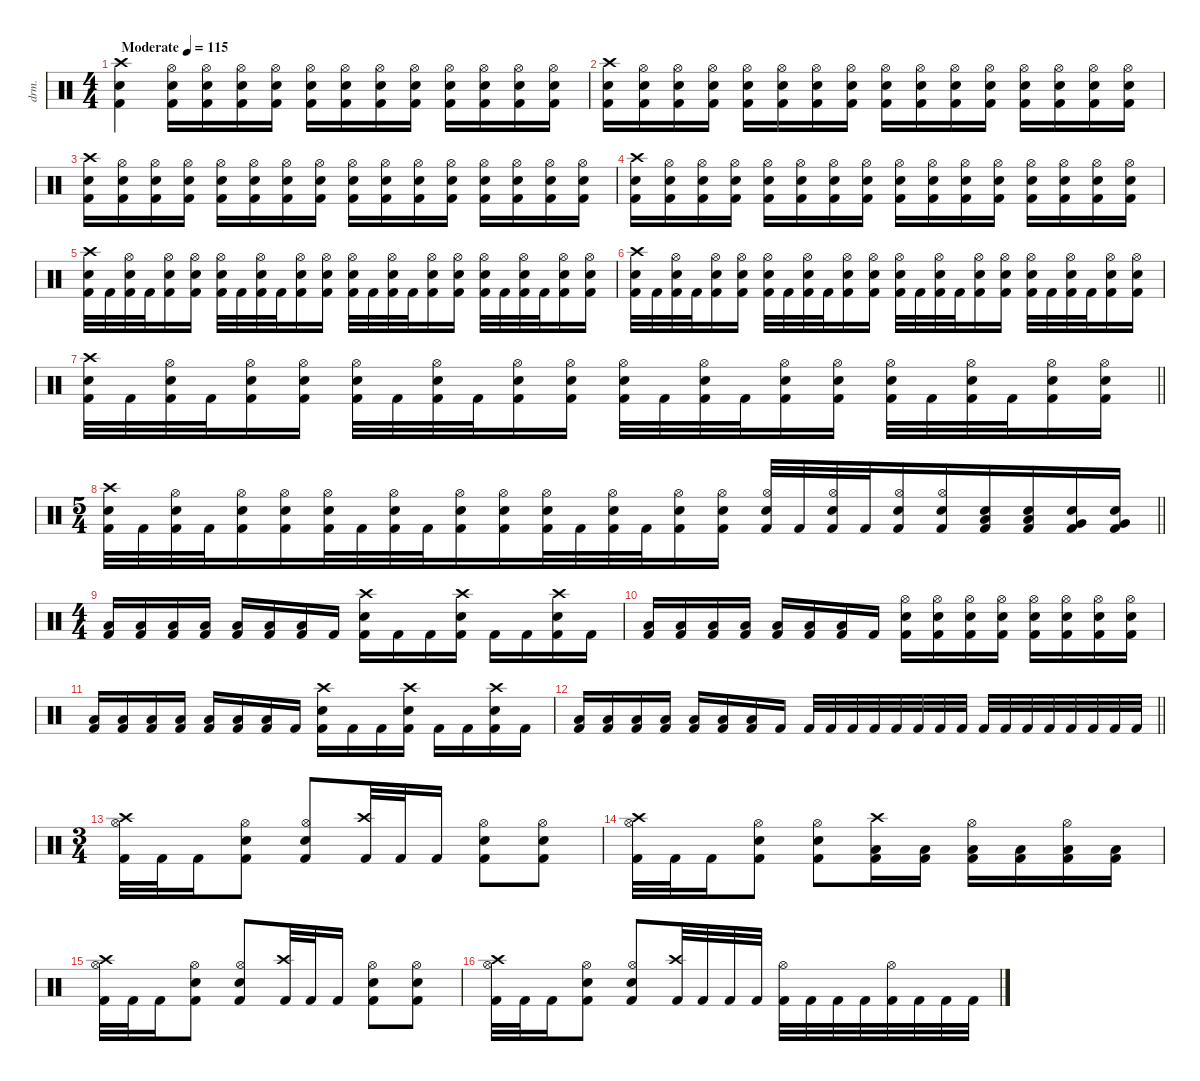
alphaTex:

\defaultSystemsLayout 4
\hideDynamics
\bracketExtendMode nobrackets
\otherSystemsTrackNameOrientation horizontal
\track ("Gene Hogland" "drm.") {instrument percussion}
\staff {score}
\articulation defaults
\ts (4 4)
\beaming (8 2 2 2 2)
\tempo (115 "Moderate")
\clef neutral
\ks c
("Crash high (hit)" "Snare (hit) 2" "Kick (hit) 2").4{dy f beam Down} ("Hi-Hat (open)" "Snare (hit) 2" "Kick (hit) 2").16{beam Down} ("Hi-Hat (open)" "Snare (hit) 2" "Kick (hit) 2").16{beam Down} ("Hi-Hat (open)" "Snare (hit) 2" "Kick (hit) 2").16{beam Down} ("Hi-Hat (open)" "Snare (hit) 2" "Kick (hit) 2").16{beam Down} ("Hi-Hat (open)" "Snare (hit) 2" "Kick (hit) 2").16{beam Down} ("Hi-Hat (open)" "Snare (hit) 2" "Kick (hit) 2").16{beam Down} ("Hi-Hat (open)" "Snare (hit) 2" "Kick (hit) 2").16{beam Down} ("Hi-Hat (open)" "Snare (hit) 2" "Kick (hit) 2").16{beam Down} ("Hi-Hat (open)" "Snare (hit) 2" "Kick (hit) 2").16{beam Down} ("Hi-Hat (open)" "Snare (hit) 2" "Kick (hit) 2").16{beam Down} ("Hi-Hat (open)" "Snare (hit) 2" "Kick (hit) 2").16{beam Down} ("Hi-Hat (open)" "Snare (hit) 2" "Kick (hit) 2").16{beam Down} |
("Crash high (hit)" "Snare (hit) 2" "Kick (hit) 2").16{beam Down} ("Hi-Hat (open)" "Snare (hit) 2" "Kick (hit) 2").16{beam Down} ("Hi-Hat (open)" "Snare (hit) 2" "Kick (hit) 2").16{beam Down} ("Hi-Hat (open)" "Snare (hit) 2" "Kick (hit) 2").16{beam Down} ("Hi-Hat (open)" "Snare (hit) 2" "Kick (hit) 2").16{beam Down} ("Hi-Hat (open)" "Snare (hit) 2" "Kick (hit) 2").16{beam Down} ("Hi-Hat (open)" "Snare (hit) 2" "Kick (hit) 2").16{beam Down} ("Hi-Hat (open)" "Snare (hit) 2" "Kick (hit) 2").16{beam Down} ("Hi-Hat (open)" "Snare (hit) 2" "Kick (hit) 2").16{beam Down} ("Hi-Hat (open)" "Snare (hit) 2" "Kick (hit) 2").16{beam Down} ("Hi-Hat (open)" "Snare (hit) 2" "Kick (hit) 2").16{beam Down} ("Hi-Hat (open)" "Snare (hit) 2" "Kick (hit) 2").16{beam Down} ("Hi-Hat (open)" "Snare (hit) 2" "Kick (hit) 2").16{beam Down} ("Hi-Hat (open)" "Snare (hit) 2" "Kick (hit) 2").16{beam Down} ("Hi-Hat (open)" "Snare (hit) 2" "Kick (hit) 2").16{beam Down} ("Hi-Hat (open)" "Snare (hit) 2" "Kick (hit) 2").16{beam Down} |
("Crash high (hit)" "Snare (hit) 2" "Kick (hit) 2").16{beam Down} ("Hi-Hat (open)" "Snare (hit) 2" "Kick (hit) 2").16{beam Down} ("Hi-Hat (open)" "Snare (hit) 2" "Kick (hit) 2").16{beam Down} ("Hi-Hat (open)" "Snare (hit) 2" "Kick (hit) 2").16{beam Down} ("Hi-Hat (open)" "Snare (hit) 2" "Kick (hit) 2").16{beam Down} ("Hi-Hat (open)" "Snare (hit) 2" "Kick (hit) 2").16{beam Down} ("Hi-Hat (open)" "Snare (hit) 2" "Kick (hit) 2").16{beam Down} ("Hi-Hat (open)" "Snare (hit) 2" "Kick (hit) 2").16{beam Down} ("Hi-Hat (open)" "Snare (hit) 2" "Kick (hit) 2").16{beam Down} ("Hi-Hat (open)" "Snare (hit) 2" "Kick (hit) 2").16{beam Down} ("Hi-Hat (open)" "Snare (hit) 2" "Kick (hit) 2").16{beam Down} ("Hi-Hat (open)" "Snare (hit) 2" "Kick (hit) 2").16{beam Down} ("Hi-Hat (open)" "Snare (hit) 2" "Kick (hit) 2").16{beam Down} ("Hi-Hat (open)" "Snare (hit) 2" "Kick (hit) 2").16{beam Down} ("Hi-Hat (open)" "Snare (hit) 2" "Kick (hit) 2").16{beam Down} ("Hi-Hat (open)" "Snare (hit) 2" "Kick (hit) 2").16{beam Down} |
("Crash high (hit)" "Snare (hit) 2" "Kick (hit) 2").16{beam Down} ("Hi-Hat (open)" "Snare (hit) 2" "Kick (hit) 2").16{beam Down} ("Hi-Hat (open)" "Snare (hit) 2" "Kick (hit) 2").16{beam Down} ("Hi-Hat (open)" "Snare (hit) 2" "Kick (hit) 2").16{beam Down} ("Hi-Hat (open)" "Snare (hit) 2" "Kick (hit) 2").16{beam Down} ("Hi-Hat (open)" "Snare (hit) 2" "Kick (hit) 2").16{beam Down} ("Hi-Hat (open)" "Snare (hit) 2" "Kick (hit) 2").16{beam Down} ("Hi-Hat (open)" "Snare (hit) 2" "Kick (hit) 2").16{beam Down} ("Hi-Hat (open)" "Snare (hit) 2" "Kick (hit) 2").16{beam Down} ("Hi-Hat (open)" "Snare (hit) 2" "Kick (hit) 2").16{beam Down} ("Hi-Hat (open)" "Snare (hit) 2" "Kick (hit) 2").16{beam Down} ("Hi-Hat (open)" "Snare (hit) 2" "Kick (hit) 2").16{beam Down} ("Hi-Hat (open)" "Snare (hit) 2" "Kick (hit) 2").16{beam Down} ("Hi-Hat (open)" "Snare (hit) 2" "Kick (hit) 2").16{beam Down} ("Hi-Hat (open)" "Snare (hit) 2" "Kick (hit) 2").16{beam Down} ("Hi-Hat (open)" "Snare (hit) 2" "Kick (hit) 2").16{beam Down} |
("Crash high (hit)" "Snare (hit) 2" "Kick (hit) 2").32{beam Down} "Kick (hit) 2".32{beam Down} ("Hi-Hat (open)" "Snare (hit) 2" "Kick (hit) 2").32{beam Down} "Kick (hit) 2".32{beam Down} ("Hi-Hat (open)" "Snare (hit) 2" "Kick (hit) 2").16{beam Down} ("Hi-Hat (open)" "Snare (hit) 2" "Kick (hit) 2").16{beam Down} ("Hi-Hat (open)" "Snare (hit) 2" "Kick (hit) 2").32{beam Down} "Kick (hit) 2".32{beam Down} ("Hi-Hat (open)" "Snare (hit) 2" "Kick (hit) 2").32{beam Down} "Kick (hit) 2".32{beam Down} ("Hi-Hat (open)" "Snare (hit) 2" "Kick (hit) 2").16{beam Down} ("Hi-Hat (open)" "Snare (hit) 2" "Kick (hit) 2").16{beam Down} ("Hi-Hat (open)" "Snare (hit) 2" "Kick (hit) 2").32{beam Down} "Kick (hit) 2".32{beam Down} ("Hi-Hat (open)" "Snare (hit) 2" "Kick (hit) 2").32{beam Down} "Kick (hit) 2".32{beam Down} ("Hi-Hat (open)" "Snare (hit) 2" "Kick (hit) 2").16{beam Down} ("Hi-Hat (open)" "Snare (hit) 2" "Kick (hit) 2").16{beam Down} ("Hi-Hat (open)" "Snare (hit) 2" "Kick (hit) 2").32{beam Down} "Kick (hit) 2".32{beam Down} ("Hi-Hat (open)" "Snare (hit) 2" "Kick (hit) 2").32{beam Down} "Kick (hit) 2".32{beam Down} ("Hi-Hat (open)" "Snare (hit) 2" "Kick (hit) 2").16{beam Down} ("Hi-Hat (open)" "Snare (hit) 2" "Kick (hit) 2").16{beam Down} |
("Crash high (hit)" "Snare (hit) 2" "Kick (hit) 2").32{beam Down} "Kick (hit) 2".32{beam Down} ("Hi-Hat (open)" "Snare (hit) 2" "Kick (hit) 2").32{beam Down} "Kick (hit) 2".32{beam Down} ("Hi-Hat (open)" "Snare (hit) 2" "Kick (hit) 2").16{beam Down} ("Hi-Hat (open)" "Snare (hit) 2" "Kick (hit) 2").16{beam Down} ("Hi-Hat (open)" "Snare (hit) 2" "Kick (hit) 2").32{beam Down} "Kick (hit) 2".32{beam Down} ("Hi-Hat (open)" "Snare (hit) 2" "Kick (hit) 2").32{beam Down} "Kick (hit) 2".32{beam Down} ("Hi-Hat (open)" "Snare (hit) 2" "Kick (hit) 2").16{beam Down} ("Hi-Hat (open)" "Snare (hit) 2" "Kick (hit) 2").16{beam Down} ("Hi-Hat (open)" "Snare (hit) 2" "Kick (hit) 2").32{beam Down} "Kick (hit) 2".32{beam Down} ("Hi-Hat (open)" "Snare (hit) 2" "Kick (hit) 2").32{beam Down} "Kick (hit) 2".32{beam Down} ("Hi-Hat (open)" "Snare (hit) 2" "Kick (hit) 2").16{beam Down} ("Hi-Hat (open)" "Snare (hit) 2" "Kick (hit) 2").16{beam Down} ("Hi-Hat (open)" "Snare (hit) 2" "Kick (hit) 2").32{beam Down} "Kick (hit) 2".32{beam Down} ("Hi-Hat (open)" "Snare (hit) 2" "Kick (hit) 2").32{beam Down} "Kick (hit) 2".32{beam Down} ("Hi-Hat (open)" "Snare (hit) 2" "Kick (hit) 2").16{beam Down} ("Hi-Hat (open)" "Snare (hit) 2" "Kick (hit) 2").16{beam Down} |
\barLineRight lightlight
("Crash high (hit)" "Snare (hit) 2" "Kick (hit) 2").32{beam Down} "Kick (hit) 2".32{beam Down} ("Hi-Hat (open)" "Snare (hit) 2" "Kick (hit) 2").32{beam Down} "Kick (hit) 2".32{beam Down} ("Hi-Hat (open)" "Snare (hit) 2" "Kick (hit) 2").16{beam Down} ("Hi-Hat (open)" "Snare (hit) 2" "Kick (hit) 2").16{beam Down} ("Hi-Hat (open)" "Snare (hit) 2" "Kick (hit) 2").32{beam Down} "Kick (hit) 2".32{beam Down} ("Hi-Hat (open)" "Snare (hit) 2" "Kick (hit) 2").32{beam Down} "Kick (hit) 2".32{beam Down} ("Hi-Hat (open)" "Snare (hit) 2" "Kick (hit) 2").16{beam Down} ("Hi-Hat (open)" "Snare (hit) 2" "Kick (hit) 2").16{beam Down} ("Hi-Hat (open)" "Snare (hit) 2" "Kick (hit) 2").32{beam Down} "Kick (hit) 2".32{beam Down} ("Hi-Hat (open)" "Snare (hit) 2" "Kick (hit) 2").32{beam Down} "Kick (hit) 2".32{beam Down} ("Hi-Hat (open)" "Snare (hit) 2" "Kick (hit) 2").16{beam Down} ("Hi-Hat (open)" "Snare (hit) 2" "Kick (hit) 2").16{beam Down} ("Hi-Hat (open)" "Snare (hit) 2" "Kick (hit) 2").32{beam Down} "Kick (hit) 2".32{beam Down} ("Hi-Hat (open)" "Snare (hit) 2" "Kick (hit) 2").32{beam Down} "Kick (hit) 2".32{beam Down} ("Hi-Hat (open)" "Snare (hit) 2" "Kick (hit) 2").16{beam Down} ("Hi-Hat (open)" "Snare (hit) 2" "Kick (hit) 2").16{beam Down} |
\ts (5 4)
\beaming (8 6 4)
\barLineRight lightlight
("Crash high (hit)" "Snare (hit) 2" "Kick (hit) 2").32{beam Down} "Kick (hit) 2".32{beam Down} ("Hi-Hat (open)" "Snare (hit) 2" "Kick (hit) 2").32{beam Down} "Kick (hit) 2".32{beam Down} ("Hi-Hat (open)" "Snare (hit) 2" "Kick (hit) 2").16{beam Down} ("Hi-Hat (open)" "Snare (hit) 2" "Kick (hit) 2").16{beam Down} ("Hi-Hat (open)" "Snare (hit) 2" "Kick (hit) 2").32{beam Down} "Kick (hit) 2".32{beam Down} ("Hi-Hat (open)" "Snare (hit) 2" "Kick (hit) 2").32{beam Down} "Kick (hit) 2".32{beam Down} ("Hi-Hat (open)" "Snare (hit) 2" "Kick (hit) 2").16{beam Down} ("Hi-Hat (open)" "Snare (hit) 2" "Kick (hit) 2").16{beam Down} ("Hi-Hat (open)" "Snare (hit) 2" "Kick (hit) 2").32{beam Down} "Kick (hit) 2".32{beam Down} ("Hi-Hat (open)" "Snare (hit) 2" "Kick (hit) 2").32{beam Down} "Kick (hit) 2".32{beam Down} ("Hi-Hat (open)" "Snare (hit) 2" "Kick (hit) 2").16{beam Down} ("Hi-Hat (open)" "Snare (hit) 2" "Kick (hit) 2").16{beam Down} ("Hi-Hat (open)" "Snare (hit) 2" "Kick (hit) 2").32{beam Up} "Kick (hit) 2".32{beam Up} ("Hi-Hat (open)" "Snare (hit) 2" "Kick (hit) 2").32{beam Up} "Kick (hit) 2".32{beam Up} ("Hi-Hat (open)" "Snare (hit) 2" "Kick (hit) 2").16{beam Up} ("Hi-Hat (open)" "Snare (hit) 2" "Kick (hit) 2").16{beam Up} ("Snare (hit) 2" "Low Tom (hit)" "Kick (hit) 2").16{beam Up} ("Snare (hit) 2" "Low Tom (hit)" "Kick (hit) 2").16{beam Up} ("Snare (hit) 2" "Very Low Tom (hit)" "Kick (hit) 2").16{beam Up} ("Snare (hit) 2" "Very Low Tom (hit)" "Kick (hit) 2").16{beam Up} |
\ts (4 4)
\beaming (8 2 2 2 2)
("Low Tom (hit)" "Kick (hit) 2").16{beam Up} ("Low Tom (hit)" "Kick (hit) 2").16{beam Up} ("Low Tom (hit)" "Kick (hit) 2").16{beam Up} ("Low Tom (hit)" "Kick (hit) 2").16{beam Up} ("Low Tom (hit)" "Kick (hit) 2").16{beam Up} ("Low Tom (hit)" "Kick (hit) 2").16{beam Up} ("Low Tom (hit)" "Kick (hit) 2").16{beam Up} "Kick (hit) 2".16{beam Up} ("Crash high (hit)" "Snare (hit) 2" "Kick (hit) 2").16{beam Down} "Kick (hit) 2".16{beam Down} "Kick (hit) 2".16{beam Down} ("Snare (hit) 2" "Crash high (hit)" "Kick (hit) 2").16{beam Down} "Kick (hit) 2".16{beam Down} "Kick (hit) 2".16{beam Down} ("Crash high (hit)" "Snare (hit) 2" "Kick (hit) 2").16{beam Down} "Kick (hit) 2".16{beam Down} |
("Low Tom (hit)" "Kick (hit) 2").16{beam Up} ("Low Tom (hit)" "Kick (hit) 2").16{beam Up} ("Low Tom (hit)" "Kick (hit) 2").16{beam Up} ("Low Tom (hit)" "Kick (hit) 2").16{beam Up} ("Low Tom (hit)" "Kick (hit) 2").16{beam Up} ("Low Tom (hit)" "Kick (hit) 2").16{beam Up} ("Low Tom (hit)" "Kick (hit) 2").16{beam Up} "Kick (hit) 2".16{beam Up} ("Hi-Hat (open)" "Snare (hit) 2" "Kick (hit) 2").16{beam Down} ("Hi-Hat (open)" "Snare (hit) 2" "Kick (hit) 2").16{beam Down} ("Hi-Hat (open)" "Snare (hit) 2" "Kick (hit) 2").16{beam Down} ("Hi-Hat (open)" "Snare (hit) 2" "Kick (hit) 2").16{beam Down} ("Hi-Hat (open)" "Snare (hit) 2" "Kick (hit) 2").16{beam Down} ("Hi-Hat (open)" "Snare (hit) 2" "Kick (hit) 2").16{beam Down} ("Hi-Hat (open)" "Snare (hit) 2" "Kick (hit) 2").16{beam Down} ("Hi-Hat (open)" "Snare (hit) 2" "Kick (hit) 2").16{beam Down} |
("Low Tom (hit)" "Kick (hit) 2").16{beam Up} ("Low Tom (hit)" "Kick (hit) 2").16{beam Up} ("Low Tom (hit)" "Kick (hit) 2").16{beam Up} ("Low Tom (hit)" "Kick (hit) 2").16{beam Up} ("Low Tom (hit)" "Kick (hit) 2").16{beam Up} ("Low Tom (hit)" "Kick (hit) 2").16{beam Up} ("Low Tom (hit)" "Kick (hit) 2").16{beam Up} "Kick (hit) 2".16{beam Up} ("Crash high (hit)" "Snare (hit) 2" "Kick (hit) 2").16{beam Down} "Kick (hit) 2".16{beam Down} "Kick (hit) 2".16{beam Down} ("Snare (hit) 2" "Crash high (hit)" "Kick (hit) 2").16{beam Down} "Kick (hit) 2".16{beam Down} "Kick (hit) 2".16{beam Down} ("Crash high (hit)" "Snare (hit) 2" "Kick (hit) 2").16{beam Down} "Kick (hit) 2".16{beam Down} |
\barLineRight lightlight
("Low Tom (hit)" "Kick (hit) 2").16{beam Up} ("Low Tom (hit)" "Kick (hit) 2").16{beam Up} ("Low Tom (hit)" "Kick (hit) 2").16{beam Up} ("Low Tom (hit)" "Kick (hit) 2").16{beam Up} ("Low Tom (hit)" "Kick (hit) 2").16{beam Up} ("Low Tom (hit)" "Kick (hit) 2").16{beam Up} ("Low Tom (hit)" "Kick (hit) 2").16{beam Up} "Kick (hit) 2".16{beam Up} "Kick (hit) 2".32{beam Up} "Kick (hit) 2".32{beam Up} "Kick (hit) 2".32{beam Up} "Kick (hit) 2".32{beam Up} "Kick (hit) 2".32{beam Up} "Kick (hit) 2".32{beam Up} "Kick (hit) 2".32{beam Up} "Kick (hit) 2".32{beam Up} "Kick (hit) 2".32{beam Up} "Kick (hit) 2".32{beam Up} "Kick (hit) 2".32{beam Up} "Kick (hit) 2".32{beam Up} "Kick (hit) 2".32{beam Up} "Kick (hit) 2".32{beam Up} "Kick (hit) 2".32{beam Up} "Kick (hit) 2".32{beam Up} |
\ts (3 4)
\beaming (8 2 2 2)
("Hi-Hat (open)" "Crash high (hit)" "Kick (hit) 2").32{beam Down} "Kick (hit) 2".32{beam Down} "Kick (hit) 2".16{beam Down} ("Hi-Hat (open)" "Snare (hit) 2" "Kick (hit) 2").8{beam Down} ("Hi-Hat (open)" "Snare (hit) 2" "Kick (hit) 2").8{beam Up} ("Crash high (hit)" "Kick (hit) 2").32{beam Up} "Kick (hit) 2".32{beam Up} "Kick (hit) 2".16{beam Up} ("Hi-Hat (open)" "Snare (hit) 2" "Kick (hit) 2").8{beam Down} ("Hi-Hat (open)" "Snare (hit) 2" "Kick (hit) 2").8{beam Down} |
("Hi-Hat (open)" "Crash high (hit)" "Kick (hit) 2").32{beam Down} "Kick (hit) 2".32{beam Down} "Kick (hit) 2".16{beam Down} ("Hi-Hat (open)" "Snare (hit) 2" "Kick (hit) 2").8{beam Down} ("Hi-Hat (open)" "Snare (hit) 2" "Kick (hit) 2").8{beam Down} ("Crash high (hit)" "Low Tom (hit)" "Kick (hit) 2").16{beam Down} ("Low Tom (hit)" "Kick (hit) 2").16{beam Down} ("Hi-Hat (open)" "Low Tom (hit)" "Kick (hit) 2").16{beam Down} ("Low Tom (hit)" "Kick (hit) 2").16{beam Down} ("Hi-Hat (open)" "Low Tom (hit)" "Kick (hit) 2").16{beam Down} ("Low Tom (hit)" "Kick (hit) 2").16{beam Down} |
("Hi-Hat (open)" "Crash high (hit)" "Kick (hit) 2").32{beam Down} "Kick (hit) 2".32{beam Down} "Kick (hit) 2".16{beam Down} ("Hi-Hat (open)" "Snare (hit) 2" "Kick (hit) 2").8{beam Down} ("Hi-Hat (open)" "Snare (hit) 2" "Kick (hit) 2").8{beam Up} ("Crash high (hit)" "Kick (hit) 2").32{beam Up} "Kick (hit) 2".32{beam Up} "Kick (hit) 2".16{beam Up} ("Hi-Hat (open)" "Snare (hit) 2" "Kick (hit) 2").8{beam Down} ("Hi-Hat (open)" "Snare (hit) 2" "Kick (hit) 2").8{beam Down} |
("Hi-Hat (open)" "Crash high (hit)" "Kick (hit) 2").32{beam Down} "Kick (hit) 2".32{beam Down} "Kick (hit) 2".16{beam Down} ("Hi-Hat (open)" "Snare (hit) 2" "Kick (hit) 2").8{beam Down} ("Hi-Hat (open)" "Snare (hit) 2" "Kick (hit) 2").8{beam Up} ("Crash high (hit)" "Kick (hit) 2").32{beam Up} "Kick (hit) 2".32{beam Up} "Kick (hit) 2".32{beam Up} "Kick (hit) 2".32{beam Up} ("Hi-Hat (open)" "Kick (hit) 2").32{beam Down} "Kick (hit) 2".32{beam Down} "Kick (hit) 2".32{beam Down} "Kick (hit) 2".32{beam Down} ("Hi-Hat (open)" "Kick (hit) 2").32{beam Down} "Kick (hit) 2".32{beam Down} "Kick (hit) 2".32{beam Down} "Kick (hit) 2".32{beam Down}
